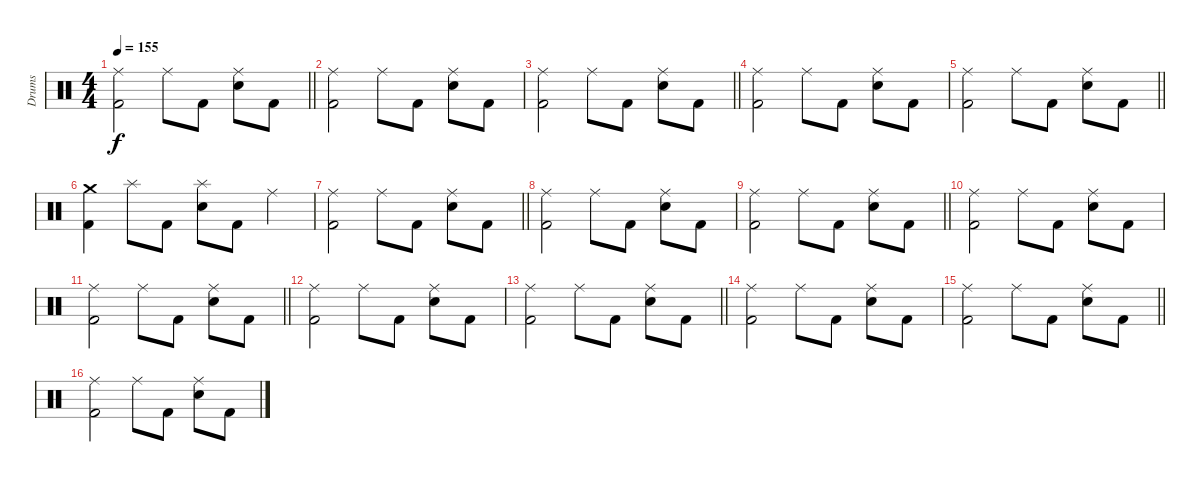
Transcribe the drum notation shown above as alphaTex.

\track ("Drums" "Drums") {instrument percussion}
\staff {score}
\articulation defaults
\ts (4 4)
\tempo 155
\clef neutral
\barLineRight lightlight
\ks c
("Ride (middle)" "Kick (hit) 2").2{dy f} "Ride (middle)".8 "Kick (hit) 2".8 ("Ride (middle)" "Electric Snare (hit)").8 "Kick (hit) 2".8 |
\section ("" "")
("Ride (middle)" "Kick (hit) 2").2 "Ride (middle)".8 "Kick (hit) 2".8 ("Ride (middle)" "Electric Snare (hit)").8 "Kick (hit) 2".8 |
\barLineRight lightlight
("Ride (middle)" "Kick (hit) 2").2 "Ride (middle)".8 "Kick (hit) 2".8 ("Ride (middle)" "Electric Snare (hit)").8 "Kick (hit) 2".8 |
("Ride (middle)" "Kick (hit) 2").2 "Ride (middle)".8 "Kick (hit) 2".8 ("Ride (middle)" "Electric Snare (hit)").8 "Kick (hit) 2".8 |
\barLineRight lightlight
("Ride (middle)" "Kick (hit) 2").2 "Ride (middle)".8 "Kick (hit) 2".8 ("Ride (middle)" "Electric Snare (hit)").8 "Kick (hit) 2".8 |
\section ("" "")
("Crash medium (hit)" "Kick (hit) 2").4 "Splash (hit)".8 "Kick (hit) 2".8 ("Splash (hit)" "Electric Snare (hit)").8 "Kick (hit) 2".8 "Ride (middle)".4 |
\barLineRight lightlight
("Ride (middle)" "Kick (hit) 2").2 "Ride (middle)".8 "Kick (hit) 2".8 ("Ride (middle)" "Electric Snare (hit)").8 "Kick (hit) 2".8 |
("Ride (middle)" "Kick (hit) 2").2 "Ride (middle)".8 "Kick (hit) 2".8 ("Ride (middle)" "Electric Snare (hit)").8 "Kick (hit) 2".8 |
\barLineRight lightlight
("Ride (middle)" "Kick (hit) 2").2 "Ride (middle)".8 "Kick (hit) 2".8 ("Ride (middle)" "Electric Snare (hit)").8 "Kick (hit) 2".8 |
\section ("" "")
("Ride (middle)" "Kick (hit) 2").2 "Ride (middle)".8 "Kick (hit) 2".8 ("Ride (middle)" "Electric Snare (hit)").8 "Kick (hit) 2".8 |
\barLineRight lightlight
("Ride (middle)" "Kick (hit) 2").2 "Ride (middle)".8 "Kick (hit) 2".8 ("Ride (middle)" "Electric Snare (hit)").8 "Kick (hit) 2".8 |
("Ride (middle)" "Kick (hit) 2").2 "Ride (middle)".8 "Kick (hit) 2".8 ("Ride (middle)" "Electric Snare (hit)").8 "Kick (hit) 2".8 |
\barLineRight lightlight
("Ride (middle)" "Kick (hit) 2").2 "Ride (middle)".8 "Kick (hit) 2".8 ("Ride (middle)" "Electric Snare (hit)").8 "Kick (hit) 2".8 |
\section ("" "")
("Ride (middle)" "Kick (hit) 2").2 "Ride (middle)".8 "Kick (hit) 2".8 ("Ride (middle)" "Electric Snare (hit)").8 "Kick (hit) 2".8 |
\barLineRight lightlight
("Ride (middle)" "Kick (hit) 2").2 "Ride (middle)".8 "Kick (hit) 2".8 ("Ride (middle)" "Electric Snare (hit)").8 "Kick (hit) 2".8 |
("Ride (middle)" "Kick (hit) 2").2 "Ride (middle)".8 "Kick (hit) 2".8 ("Ride (middle)" "Electric Snare (hit)").8 "Kick (hit) 2".8
